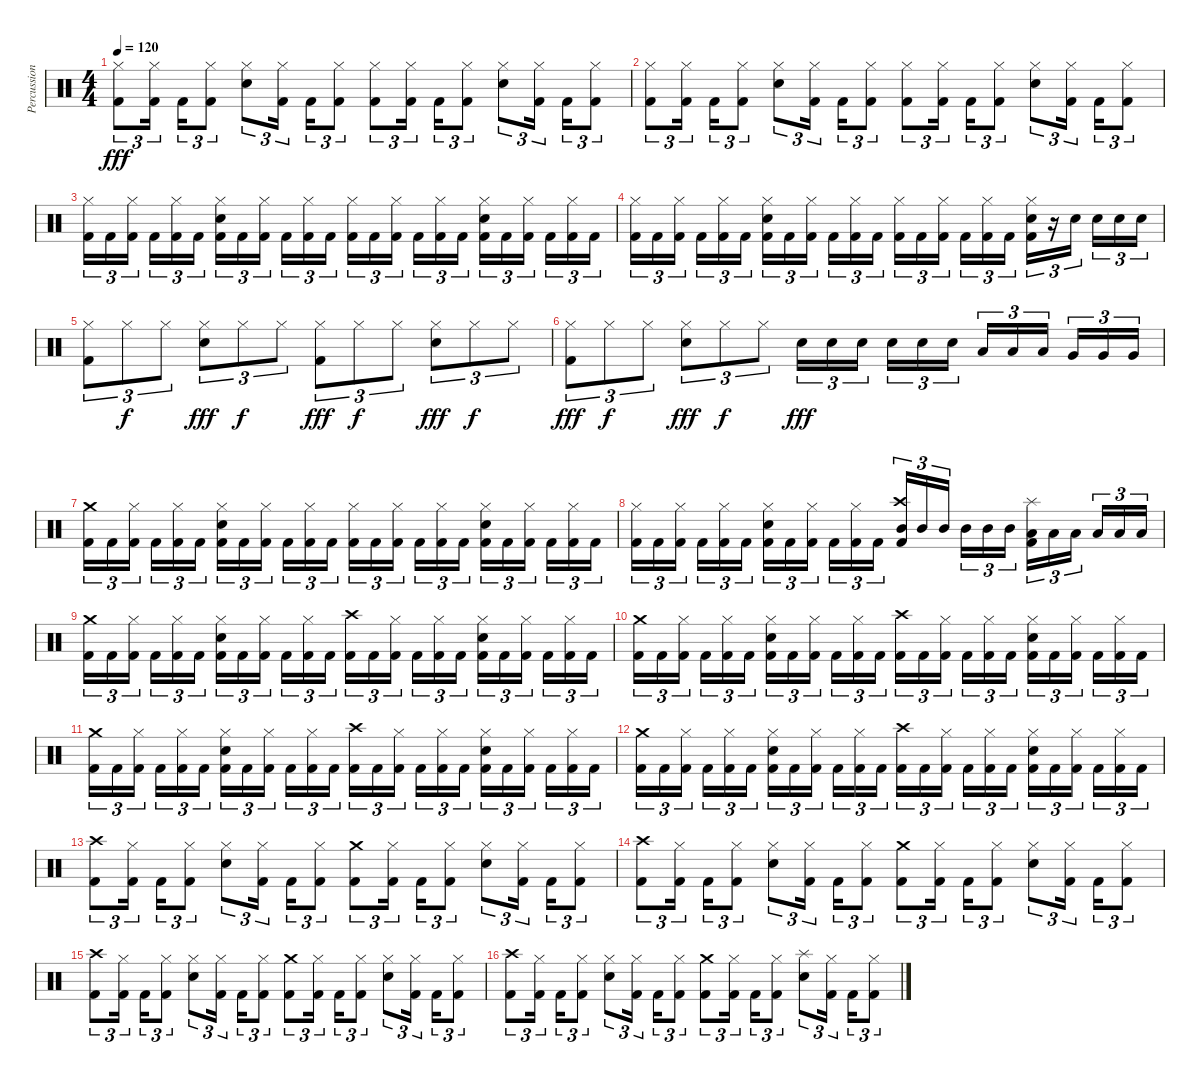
\track ("Percussions" "Percussion") {instrument percussion}
\staff {score}
\articulation defaults
\ts (4 4)
\tempo 120
\clef neutral
\ks c
("Hi-Hat (closed)" "Kick (hit) 2").8{tu (3 2) dy fff} ("Hi-Hat (closed)" "Kick (hit) 2").16{tu (3 2) beam splitsecondary} "Kick (hit) 2".16{tu (3 2)} ("Hi-Hat (closed)" "Kick (hit) 2").8{tu (3 2)} ("Hi-Hat (closed)" "Snare (hit) 2").8{tu (3 2)} ("Hi-Hat (closed)" "Kick (hit) 2").16{tu (3 2) beam splitsecondary} "Kick (hit) 2".16{tu (3 2)} ("Hi-Hat (closed)" "Kick (hit) 2").8{tu (3 2)} ("Hi-Hat (closed)" "Kick (hit) 2").8{tu (3 2)} ("Hi-Hat (closed)" "Kick (hit) 2").16{tu (3 2) beam splitsecondary} "Kick (hit) 2".16{tu (3 2)} ("Hi-Hat (closed)" "Kick (hit) 2").8{tu (3 2)} ("Hi-Hat (closed)" "Snare (hit) 2").8{tu (3 2)} ("Hi-Hat (closed)" "Kick (hit) 2").16{tu (3 2) beam splitsecondary} "Kick (hit) 2".16{tu (3 2)} ("Hi-Hat (closed)" "Kick (hit) 2").8{tu (3 2)} |
("Hi-Hat (closed)" "Kick (hit) 2").8{tu (3 2)} ("Hi-Hat (closed)" "Kick (hit) 2").16{tu (3 2) beam splitsecondary} "Kick (hit) 2".16{tu (3 2)} ("Hi-Hat (closed)" "Kick (hit) 2").8{tu (3 2)} ("Hi-Hat (closed)" "Snare (hit) 2").8{tu (3 2)} ("Hi-Hat (closed)" "Kick (hit) 2").16{tu (3 2) beam splitsecondary} "Kick (hit) 2".16{tu (3 2)} ("Hi-Hat (closed)" "Kick (hit) 2").8{tu (3 2)} ("Hi-Hat (closed)" "Kick (hit) 2").8{tu (3 2)} ("Hi-Hat (closed)" "Kick (hit) 2").16{tu (3 2) beam splitsecondary} "Kick (hit) 2".16{tu (3 2)} ("Hi-Hat (closed)" "Kick (hit) 2").8{tu (3 2)} ("Hi-Hat (closed)" "Snare (hit) 2").8{tu (3 2)} ("Hi-Hat (closed)" "Kick (hit) 2").16{tu (3 2) beam splitsecondary} "Kick (hit) 2".16{tu (3 2)} ("Hi-Hat (closed)" "Kick (hit) 2").8{tu (3 2)} |
("Hi-Hat (closed)" "Kick (hit) 2").16{tu (3 2)} "Kick (hit) 2".16{tu (3 2)} ("Hi-Hat (closed)" "Kick (hit) 2").16{tu (3 2) beam splitsecondary} "Kick (hit) 2".16{tu (3 2)} ("Hi-Hat (closed)" "Kick (hit) 2").16{tu (3 2)} "Kick (hit) 2".16{tu (3 2)} ("Hi-Hat (closed)" "Snare (hit) 2" "Kick (hit) 2").16{tu (3 2)} "Kick (hit) 2".16{tu (3 2)} ("Hi-Hat (closed)" "Kick (hit) 2").16{tu (3 2) beam splitsecondary} "Kick (hit) 2".16{tu (3 2)} ("Hi-Hat (closed)" "Kick (hit) 2").16{tu (3 2)} "Kick (hit) 2".16{tu (3 2)} ("Hi-Hat (closed)" "Kick (hit) 2").16{tu (3 2)} "Kick (hit) 2".16{tu (3 2)} ("Hi-Hat (closed)" "Kick (hit) 2").16{tu (3 2) beam splitsecondary} "Kick (hit) 2".16{tu (3 2)} ("Hi-Hat (closed)" "Kick (hit) 2").16{tu (3 2)} "Kick (hit) 2".16{tu (3 2)} ("Hi-Hat (closed)" "Snare (hit) 2" "Kick (hit) 2").16{tu (3 2)} "Kick (hit) 2".16{tu (3 2)} ("Hi-Hat (closed)" "Kick (hit) 2").16{tu (3 2) beam splitsecondary} "Kick (hit) 2".16{tu (3 2)} ("Hi-Hat (closed)" "Kick (hit) 2").16{tu (3 2)} "Kick (hit) 2".16{tu (3 2)} |
("Hi-Hat (closed)" "Kick (hit) 2").16{tu (3 2)} "Kick (hit) 2".16{tu (3 2)} ("Hi-Hat (closed)" "Kick (hit) 2").16{tu (3 2) beam splitsecondary} "Kick (hit) 2".16{tu (3 2)} ("Hi-Hat (closed)" "Kick (hit) 2").16{tu (3 2)} "Kick (hit) 2".16{tu (3 2)} ("Hi-Hat (closed)" "Snare (hit) 2" "Kick (hit) 2").16{tu (3 2)} "Kick (hit) 2".16{tu (3 2)} ("Hi-Hat (closed)" "Kick (hit) 2").16{tu (3 2) beam splitsecondary} "Kick (hit) 2".16{tu (3 2)} ("Hi-Hat (closed)" "Kick (hit) 2").16{tu (3 2)} "Kick (hit) 2".16{tu (3 2)} ("Hi-Hat (closed)" "Kick (hit) 2").16{tu (3 2)} "Kick (hit) 2".16{tu (3 2)} ("Hi-Hat (closed)" "Kick (hit) 2").16{tu (3 2) beam splitsecondary} "Kick (hit) 2".16{tu (3 2)} ("Hi-Hat (closed)" "Kick (hit) 2").16{tu (3 2)} "Kick (hit) 2".16{tu (3 2)} ("Hi-Hat (closed)" "Snare (hit) 2" "Kick (hit) 2").16{tu (3 2)} r.16{tu (3 2)} "Snare (hit) 2".16{tu (3 2) beam splitsecondary} "Snare (hit) 2".16{tu (3 2)} "Snare (hit) 2".16{tu (3 2)} "Snare (hit) 2".16{tu (3 2)} |
("Hi-Hat (closed)" "Kick (hit) 2").8{tu (3 2)} "Hi-Hat (closed)".8{tu (3 2) dy f} "Hi-Hat (closed)".8{tu (3 2)} ("Hi-Hat (closed)" "Snare (hit) 2").8{tu (3 2) dy fff} "Hi-Hat (closed)".8{tu (3 2) dy f} "Hi-Hat (closed)".8{tu (3 2)} ("Hi-Hat (closed)" "Kick (hit) 2").8{tu (3 2) dy fff} "Hi-Hat (closed)".8{tu (3 2) dy f} "Hi-Hat (closed)".8{tu (3 2)} ("Hi-Hat (closed)" "Snare (hit) 2").8{tu (3 2) dy fff} "Hi-Hat (closed)".8{tu (3 2) dy f} "Hi-Hat (closed)".8{tu (3 2)} |
("Hi-Hat (closed)" "Kick (hit) 2").8{tu (3 2) dy fff} "Hi-Hat (closed)".8{tu (3 2) dy f} "Hi-Hat (closed)".8{tu (3 2)} ("Hi-Hat (closed)" "Snare (hit) 2").8{tu (3 2) dy fff} "Hi-Hat (closed)".8{tu (3 2) dy f} "Hi-Hat (closed)".8{tu (3 2)} "Snare (hit) 2".16{tu (3 2) dy fff} "Snare (hit) 2".16{tu (3 2)} "Snare (hit) 2".16{tu (3 2) beam splitsecondary} "Snare (hit) 2".16{tu (3 2)} "Snare (hit) 2".16{tu (3 2)} "Snare (hit) 2".16{tu (3 2)} "Low Tom (hit)".16{tu (3 2)} "Low Tom (hit)".16{tu (3 2)} "Low Tom (hit)".16{tu (3 2) beam splitsecondary} "Very Low Tom (hit)".16{tu (3 2)} "Very Low Tom (hit)".16{tu (3 2)} "Very Low Tom (hit)".16{tu (3 2)} |
("Crash medium (hit)" "Kick (hit) 2").16{tu (3 2)} "Kick (hit) 2".16{tu (3 2)} ("Hi-Hat (closed)" "Kick (hit) 2").16{tu (3 2) beam splitsecondary} "Kick (hit) 2".16{tu (3 2)} ("Hi-Hat (closed)" "Kick (hit) 2").16{tu (3 2)} "Kick (hit) 2".16{tu (3 2)} ("Hi-Hat (closed)" "Snare (hit) 2" "Kick (hit) 2").16{tu (3 2)} "Kick (hit) 2".16{tu (3 2)} ("Hi-Hat (closed)" "Kick (hit) 2").16{tu (3 2) beam splitsecondary} "Kick (hit) 2".16{tu (3 2)} ("Hi-Hat (closed)" "Kick (hit) 2").16{tu (3 2)} "Kick (hit) 2".16{tu (3 2)} ("Hi-Hat (closed)" "Kick (hit) 2").16{tu (3 2)} "Kick (hit) 2".16{tu (3 2)} ("Hi-Hat (closed)" "Kick (hit) 2").16{tu (3 2) beam splitsecondary} "Kick (hit) 2".16{tu (3 2)} ("Hi-Hat (closed)" "Kick (hit) 2").16{tu (3 2)} "Kick (hit) 2".16{tu (3 2)} ("Hi-Hat (closed)" "Snare (hit) 2" "Kick (hit) 2").16{tu (3 2)} "Kick (hit) 2".16{tu (3 2)} ("Hi-Hat (closed)" "Kick (hit) 2").16{tu (3 2) beam splitsecondary} "Kick (hit) 2".16{tu (3 2)} ("Hi-Hat (closed)" "Kick (hit) 2").16{tu (3 2)} "Kick (hit) 2".16{tu (3 2)} |
("Hi-Hat (closed)" "Kick (hit) 2").16{tu (3 2)} "Kick (hit) 2".16{tu (3 2)} ("Hi-Hat (closed)" "Kick (hit) 2").16{tu (3 2) beam splitsecondary} "Kick (hit) 2".16{tu (3 2)} ("Hi-Hat (closed)" "Kick (hit) 2").16{tu (3 2)} "Kick (hit) 2".16{tu (3 2)} ("Hi-Hat (closed)" "Snare (hit) 2" "Kick (hit) 2").16{tu (3 2)} "Kick (hit) 2".16{tu (3 2)} ("Hi-Hat (closed)" "Kick (hit) 2").16{tu (3 2) beam splitsecondary} "Kick (hit) 2".16{tu (3 2)} ("Hi-Hat (closed)" "Kick (hit) 2").16{tu (3 2)} "Kick (hit) 2".16{tu (3 2)} ("Crash high (hit)" "Mid Tom (hit)" "Kick (hit) 2").16{tu (3 2)} "Mid Tom (hit)".16{tu (3 2)} "Mid Tom (hit)".16{tu (3 2) beam splitsecondary} "Mid Tom (hit)".16{tu (3 2)} "Mid Tom (hit)".16{tu (3 2)} "Mid Tom (hit)".16{tu (3 2)} ("Splash (hit)" "Low Tom (hit)" "Kick (hit) 2").16{tu (3 2)} "Low Tom (hit)".16{tu (3 2)} "Low Tom (hit)".16{tu (3 2) beam splitsecondary} "Low Tom (hit)".16{tu (3 2)} "Low Tom (hit)".16{tu (3 2)} "Low Tom (hit)".16{tu (3 2)} |
("Crash medium (hit)" "Kick (hit) 2").16{tu (3 2)} "Kick (hit) 2".16{tu (3 2)} ("Hi-Hat (closed)" "Kick (hit) 2").16{tu (3 2) beam splitsecondary} "Kick (hit) 2".16{tu (3 2)} ("Hi-Hat (closed)" "Kick (hit) 2").16{tu (3 2)} "Kick (hit) 2".16{tu (3 2)} ("Hi-Hat (closed)" "Snare (hit) 2" "Kick (hit) 2").16{tu (3 2)} "Kick (hit) 2".16{tu (3 2)} ("Hi-Hat (closed)" "Kick (hit) 2").16{tu (3 2) beam splitsecondary} "Kick (hit) 2".16{tu (3 2)} ("Hi-Hat (closed)" "Kick (hit) 2").16{tu (3 2)} "Kick (hit) 2".16{tu (3 2)} ("Crash high (hit)" "Kick (hit) 2").16{tu (3 2)} "Kick (hit) 2".16{tu (3 2)} ("Hi-Hat (closed)" "Kick (hit) 2").16{tu (3 2) beam splitsecondary} "Kick (hit) 2".16{tu (3 2)} ("Hi-Hat (closed)" "Kick (hit) 2").16{tu (3 2)} "Kick (hit) 2".16{tu (3 2)} ("Hi-Hat (closed)" "Snare (hit) 2" "Kick (hit) 2").16{tu (3 2)} "Kick (hit) 2".16{tu (3 2)} ("Hi-Hat (closed)" "Kick (hit) 2").16{tu (3 2) beam splitsecondary} "Kick (hit) 2".16{tu (3 2)} ("Hi-Hat (closed)" "Kick (hit) 2").16{tu (3 2)} "Kick (hit) 2".16{tu (3 2)} |
("Crash medium (hit)" "Kick (hit) 2").16{tu (3 2)} "Kick (hit) 2".16{tu (3 2)} ("Hi-Hat (closed)" "Kick (hit) 2").16{tu (3 2) beam splitsecondary} "Kick (hit) 2".16{tu (3 2)} ("Hi-Hat (closed)" "Kick (hit) 2").16{tu (3 2)} "Kick (hit) 2".16{tu (3 2)} ("Hi-Hat (closed)" "Snare (hit) 2" "Kick (hit) 2").16{tu (3 2)} "Kick (hit) 2".16{tu (3 2)} ("Hi-Hat (closed)" "Kick (hit) 2").16{tu (3 2) beam splitsecondary} "Kick (hit) 2".16{tu (3 2)} ("Hi-Hat (closed)" "Kick (hit) 2").16{tu (3 2)} "Kick (hit) 2".16{tu (3 2)} ("Crash high (hit)" "Kick (hit) 2").16{tu (3 2)} "Kick (hit) 2".16{tu (3 2)} ("Hi-Hat (closed)" "Kick (hit) 2").16{tu (3 2) beam splitsecondary} "Kick (hit) 2".16{tu (3 2)} ("Hi-Hat (closed)" "Kick (hit) 2").16{tu (3 2)} "Kick (hit) 2".16{tu (3 2)} ("Hi-Hat (closed)" "Snare (hit) 2" "Kick (hit) 2").16{tu (3 2)} "Kick (hit) 2".16{tu (3 2)} ("Hi-Hat (closed)" "Kick (hit) 2").16{tu (3 2) beam splitsecondary} "Kick (hit) 2".16{tu (3 2)} ("Hi-Hat (closed)" "Kick (hit) 2").16{tu (3 2)} "Kick (hit) 2".16{tu (3 2)} |
("Crash medium (hit)" "Kick (hit) 2").16{tu (3 2)} "Kick (hit) 2".16{tu (3 2)} ("Hi-Hat (closed)" "Kick (hit) 2").16{tu (3 2) beam splitsecondary} "Kick (hit) 2".16{tu (3 2)} ("Hi-Hat (closed)" "Kick (hit) 2").16{tu (3 2)} "Kick (hit) 2".16{tu (3 2)} ("Hi-Hat (closed)" "Snare (hit) 2" "Kick (hit) 2").16{tu (3 2)} "Kick (hit) 2".16{tu (3 2)} ("Hi-Hat (closed)" "Kick (hit) 2").16{tu (3 2) beam splitsecondary} "Kick (hit) 2".16{tu (3 2)} ("Hi-Hat (closed)" "Kick (hit) 2").16{tu (3 2)} "Kick (hit) 2".16{tu (3 2)} ("Crash high (hit)" "Kick (hit) 2").16{tu (3 2)} "Kick (hit) 2".16{tu (3 2)} ("Hi-Hat (closed)" "Kick (hit) 2").16{tu (3 2) beam splitsecondary} "Kick (hit) 2".16{tu (3 2)} ("Hi-Hat (closed)" "Kick (hit) 2").16{tu (3 2)} "Kick (hit) 2".16{tu (3 2)} ("Hi-Hat (closed)" "Snare (hit) 2" "Kick (hit) 2").16{tu (3 2)} "Kick (hit) 2".16{tu (3 2)} ("Hi-Hat (closed)" "Kick (hit) 2").16{tu (3 2) beam splitsecondary} "Kick (hit) 2".16{tu (3 2)} ("Hi-Hat (closed)" "Kick (hit) 2").16{tu (3 2)} "Kick (hit) 2".16{tu (3 2)} |
("Crash medium (hit)" "Kick (hit) 2").16{tu (3 2)} "Kick (hit) 2".16{tu (3 2)} ("Hi-Hat (closed)" "Kick (hit) 2").16{tu (3 2) beam splitsecondary} "Kick (hit) 2".16{tu (3 2)} ("Hi-Hat (closed)" "Kick (hit) 2").16{tu (3 2)} "Kick (hit) 2".16{tu (3 2)} ("Hi-Hat (closed)" "Snare (hit) 2" "Kick (hit) 2").16{tu (3 2)} "Kick (hit) 2".16{tu (3 2)} ("Hi-Hat (closed)" "Kick (hit) 2").16{tu (3 2) beam splitsecondary} "Kick (hit) 2".16{tu (3 2)} ("Hi-Hat (closed)" "Kick (hit) 2").16{tu (3 2)} "Kick (hit) 2".16{tu (3 2)} ("Crash high (hit)" "Kick (hit) 2").16{tu (3 2)} "Kick (hit) 2".16{tu (3 2)} ("Hi-Hat (closed)" "Kick (hit) 2").16{tu (3 2) beam splitsecondary} "Kick (hit) 2".16{tu (3 2)} ("Hi-Hat (closed)" "Kick (hit) 2").16{tu (3 2)} "Kick (hit) 2".16{tu (3 2)} ("Hi-Hat (closed)" "Snare (hit) 2" "Kick (hit) 2").16{tu (3 2)} "Kick (hit) 2".16{tu (3 2)} ("Hi-Hat (closed)" "Kick (hit) 2").16{tu (3 2) beam splitsecondary} "Kick (hit) 2".16{tu (3 2)} ("Hi-Hat (closed)" "Kick (hit) 2").16{tu (3 2)} "Kick (hit) 2".16{tu (3 2)} |
("Crash high (hit)" "Kick (hit) 2").8{tu (3 2)} ("Hi-Hat (closed)" "Kick (hit) 2").16{tu (3 2) beam splitsecondary} "Kick (hit) 2".16{tu (3 2)} ("Hi-Hat (closed)" "Kick (hit) 2").8{tu (3 2)} ("Hi-Hat (closed)" "Snare (hit) 2").8{tu (3 2)} ("Hi-Hat (closed)" "Kick (hit) 2").16{tu (3 2) beam splitsecondary} "Kick (hit) 2".16{tu (3 2)} ("Hi-Hat (closed)" "Kick (hit) 2").8{tu (3 2)} ("Crash medium (hit)" "Kick (hit) 2").8{tu (3 2)} ("Hi-Hat (closed)" "Kick (hit) 2").16{tu (3 2) beam splitsecondary} "Kick (hit) 2".16{tu (3 2)} ("Hi-Hat (closed)" "Kick (hit) 2").8{tu (3 2)} ("Hi-Hat (closed)" "Snare (hit) 2").8{tu (3 2)} ("Hi-Hat (closed)" "Kick (hit) 2").16{tu (3 2) beam splitsecondary} "Kick (hit) 2".16{tu (3 2)} ("Hi-Hat (closed)" "Kick (hit) 2").8{tu (3 2)} |
("Crash high (hit)" "Kick (hit) 2").8{tu (3 2)} ("Hi-Hat (closed)" "Kick (hit) 2").16{tu (3 2) beam splitsecondary} "Kick (hit) 2".16{tu (3 2)} ("Hi-Hat (closed)" "Kick (hit) 2").8{tu (3 2)} ("Hi-Hat (closed)" "Snare (hit) 2").8{tu (3 2)} ("Hi-Hat (closed)" "Kick (hit) 2").16{tu (3 2) beam splitsecondary} "Kick (hit) 2".16{tu (3 2)} ("Hi-Hat (closed)" "Kick (hit) 2").8{tu (3 2)} ("Crash medium (hit)" "Kick (hit) 2").8{tu (3 2)} ("Hi-Hat (closed)" "Kick (hit) 2").16{tu (3 2) beam splitsecondary} "Kick (hit) 2".16{tu (3 2)} ("Hi-Hat (closed)" "Kick (hit) 2").8{tu (3 2)} ("Hi-Hat (closed)" "Snare (hit) 2").8{tu (3 2)} ("Hi-Hat (closed)" "Kick (hit) 2").16{tu (3 2) beam splitsecondary} "Kick (hit) 2".16{tu (3 2)} ("Hi-Hat (closed)" "Kick (hit) 2").8{tu (3 2)} |
("Crash high (hit)" "Kick (hit) 2").8{tu (3 2)} ("Hi-Hat (closed)" "Kick (hit) 2").16{tu (3 2) beam splitsecondary} "Kick (hit) 2".16{tu (3 2)} ("Hi-Hat (closed)" "Kick (hit) 2").8{tu (3 2)} ("Hi-Hat (closed)" "Snare (hit) 2").8{tu (3 2)} ("Hi-Hat (closed)" "Kick (hit) 2").16{tu (3 2) beam splitsecondary} "Kick (hit) 2".16{tu (3 2)} ("Hi-Hat (closed)" "Kick (hit) 2").8{tu (3 2)} ("Crash medium (hit)" "Kick (hit) 2").8{tu (3 2)} ("Hi-Hat (closed)" "Kick (hit) 2").16{tu (3 2) beam splitsecondary} "Kick (hit) 2".16{tu (3 2)} ("Hi-Hat (closed)" "Kick (hit) 2").8{tu (3 2)} ("Hi-Hat (closed)" "Snare (hit) 2").8{tu (3 2)} ("Hi-Hat (closed)" "Kick (hit) 2").16{tu (3 2) beam splitsecondary} "Kick (hit) 2".16{tu (3 2)} ("Hi-Hat (closed)" "Kick (hit) 2").8{tu (3 2)} |
("Crash high (hit)" "Kick (hit) 2").8{tu (3 2)} ("Hi-Hat (closed)" "Kick (hit) 2").16{tu (3 2) beam splitsecondary} "Kick (hit) 2".16{tu (3 2)} ("Hi-Hat (closed)" "Kick (hit) 2").8{tu (3 2)} ("Hi-Hat (closed)" "Snare (hit) 2").8{tu (3 2)} ("Hi-Hat (closed)" "Kick (hit) 2").16{tu (3 2) beam splitsecondary} "Kick (hit) 2".16{tu (3 2)} ("Hi-Hat (closed)" "Kick (hit) 2").8{tu (3 2)} ("Crash medium (hit)" "Kick (hit) 2").8{tu (3 2)} ("Hi-Hat (closed)" "Kick (hit) 2").16{tu (3 2) beam splitsecondary} "Kick (hit) 2".16{tu (3 2)} ("Hi-Hat (closed)" "Kick (hit) 2").8{tu (3 2)} ("Splash (hit)" "Snare (hit) 2").8{tu (3 2)} ("Hi-Hat (closed)" "Kick (hit) 2").16{tu (3 2) beam splitsecondary} "Kick (hit) 2".16{tu (3 2)} ("Hi-Hat (closed)" "Kick (hit) 2").8{tu (3 2)}
